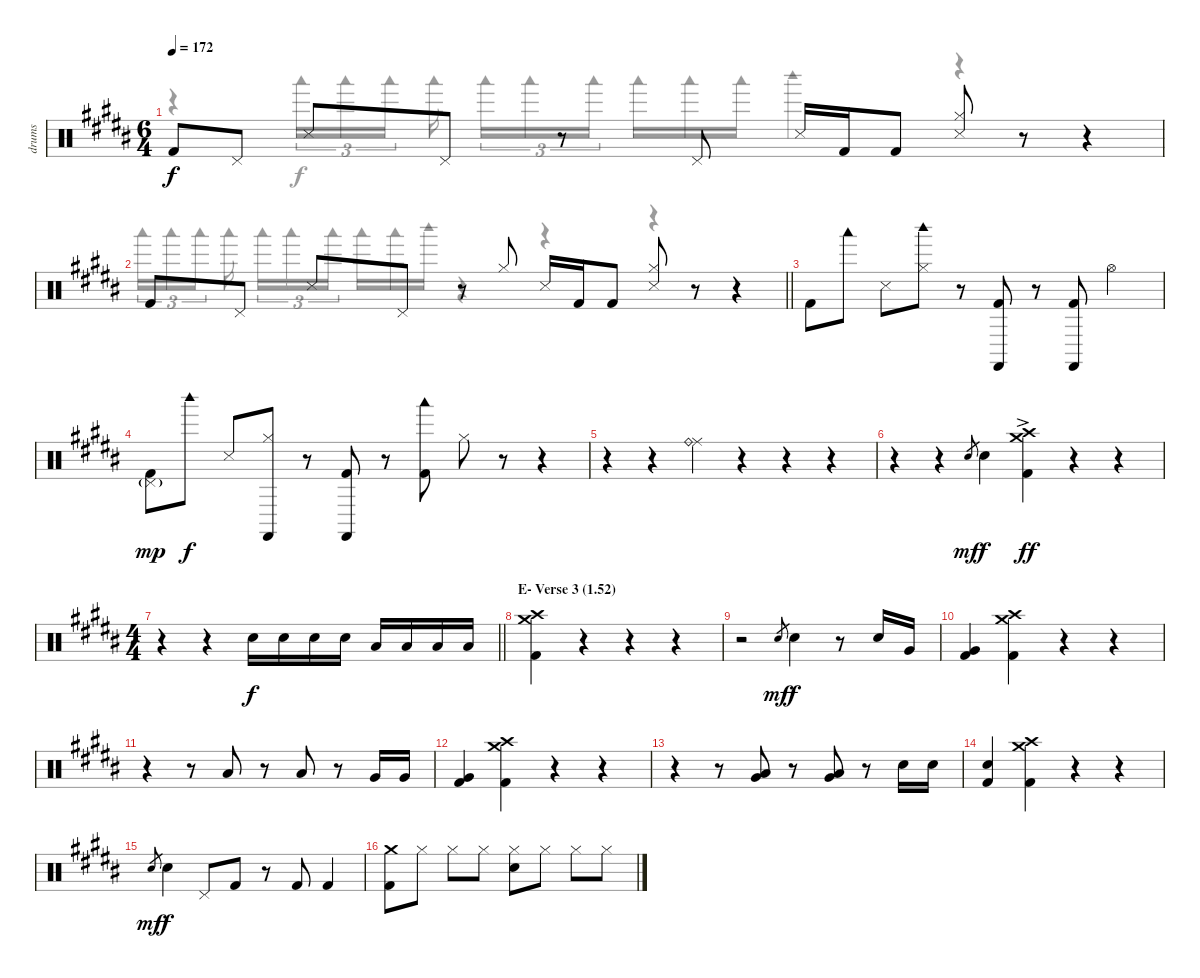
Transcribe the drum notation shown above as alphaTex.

\track ("drums" "drums") {instrument percussion}
\staff {score}
\articulation defaults
\voice
\ts (6 4)
\tempo 172
\clef neutral
\ks g#minor "Kick (hit) 2".8{dy f} "Pedal Hi-Hat (hit)".8 "Snare (side stick) 3".8 "Pedal Hi-Hat (hit)".8
r.8 "Pedal Hi-Hat (hit)".8 "Snare (side stick) 3".16 "Kick (hit) 2".16 "Kick (hit) 2".8 ("Hi-Hat (closed)" "Snare (side stick) 3").8 r.8 r.4 |
\barLineRight lightlight "Kick (hit) 2".8 "Pedal Hi-Hat (hit)".8 "Snare (side stick) 3".8 "Pedal Hi-Hat (hit)".8
r.8 "Hi-Hat (closed)".8 "Snare (side stick) 3".16 "Kick (hit) 2".16 "Kick (hit) 2".8 ("Hi-Hat (closed)" "Snare (side stick) 3").8 r.8 r.4 |
\ks b "Kick (hit) 2".8 "Woodblock low (hit)".8 "Snare (side stick) 3".8
("Hi-Hat (closed)" "Woodblock high (hit)").8 r.8 ("Castanets (hit)" "Kick (hit) 2").8 r.8 ("Castanets (hit)" "Kick (hit) 2").8 "Hi-Hat (open)".2 |
\ks g#minor
("Pedal Hi-Hat (hit)"{g} "Kick (hit) 2").8{dy mp} "Woodblock high (hit)".8{dy f} "Snare (side stick) 3".8 ("Hi-Hat (closed)" "Castanets (hit)").8 r.8 ("Castanets (hit)" "Kick (hit) 2").8 r.8 ("Woodblock low (hit)" "Kick (hit) 2").8 "Hi-Hat (closed)".8 r.8 r.4 |
r.4 r.4 ("Ride (middle)" "Ride (bell)").4 r.4 r.4 r.4 |
r.4 r.4 "Electric Snare (hit)".8{gr dy mf} "Electric Snare (hit)".4{dy f} ("Crash high (hit)"{ac} "Crash medium (hit)"{ac} "Kick (hit) 2"{ac}).4{dy ff} r.4 r.4 |
\ts (4 4)
\barLineRight lightlight
r.4 r.4 "Electric Snare (hit)".16{dy f} "Electric Snare (hit)".16 "Electric Snare (hit)".16 "Electric Snare (hit)".16 "Low Tom (hit)".16 "Low Tom (hit)".16 "Low Tom (hit)".16 "Low Tom (hit)".16 |
\section ("" "E- Verse 3 (1.52)")
\ks b
("Crash high (hit)" "Crash medium (hit)" "Kick (hit) 2").4 r.4 r.4 r.4 |
\ks g#minor
r.2 "Electric Snare (hit)".8{gr dy mf} "Electric Snare (hit)".4{dy f} r.8 "Electric Snare (hit)".16 "Very Low Tom (hit)".16 |
\ks b
("Very Low Tom (hit)" "Kick (hit) 2").4 ("Crash high (hit)" "Crash medium (hit)" "Kick (hit) 2").4 r.4 r.4 |
\ks g#minor
r.4 r.8 "Low Tom (hit)".8 r.8 "Low Tom (hit)".8 r.8 "Very Low Tom (hit)".16 "Very Low Tom (hit)".16 |
\ks b
("Very Low Tom (hit)" "Kick (hit) 2").4 ("Crash high (hit)" "Crash medium (hit)" "Kick (hit) 2").4 r.4 r.4 |
\ks g#minor
r.4 r.8 ("Low Tom (hit)" "Very Low Tom (hit)").8 r.8 ("Low Tom (hit)" "Very Low Tom (hit)").8 r.8 "Electric Snare (hit)".16 "Electric Snare (hit)".16 |
\ks b
("Electric Snare (hit)" "Kick (hit) 2").4 ("Crash high (hit)" "Crash medium (hit)" "Kick (hit) 2").4 r.4 r.4 |
\ks g#minor "Electric Snare (hit)".8{gr dy mf} "Electric Snare (hit)".4{dy f} "Pedal Hi-Hat (hit)".8 "Kick (hit) 2".8
r.8 "Kick (hit) 2".8 "Kick (hit) 2".4 |
\ks b
("Crash medium (hit)" "Kick (hit) 2").8 "Hi-Hat (closed)".8 "Hi-Hat (closed)".8 "Hi-Hat (closed)".8 ("Hi-Hat (closed)" "Electric Snare (hit)").8 "Hi-Hat (closed)".8 "Hi-Hat (closed)".8 "Hi-Hat (closed)".8
\voice
\clef neutral
\ottava regular
\simile none
\ks g#minor
r.4{dy f} "Woodblock low (hit)".16{tu (3 2)} "Woodblock low (hit)".16{tu (3 2)} "Woodblock low (hit)".16{tu (3 2) beam splitsecondary} "Woodblock low (hit)".16{beam splitsecondary} "Woodblock low (hit)".16{tu (3 2)} "Woodblock low (hit)".16{tu (3 2)} "Woodblock low (hit)".16{tu (3 2) beam splitsecondary} "Woodblock low (hit)".16 "Woodblock low (hit)".16 "Woodblock low (hit)".16 "Woodblock high (hit)".4 r.4 r.4 |
\barLineRight lightlight "Woodblock low (hit)".16{tu (3 2)} "Woodblock low (hit)".16{tu (3 2)} "Woodblock low (hit)".16{tu (3 2) beam splitsecondary} "Woodblock low (hit)".16{beam splitsecondary} "Woodblock low (hit)".16{tu (3 2)} "Woodblock low (hit)".16{tu (3 2)} "Woodblock low (hit)".16{tu (3 2) beam splitsecondary} "Woodblock low (hit)".16 "Woodblock low (hit)".16 "Woodblock high (hit)".16
r.4 r.4 r.4 r.4 |
\ks b
|
\ks g#minor
|
|
|
\barLineRight lightlight
|
\ks b
|
\ks g#minor
|
\ks b
|
\ks g#minor
|
\ks b
|
\ks g#minor
|
\ks b
|
\ks g#minor
|
\ks b
